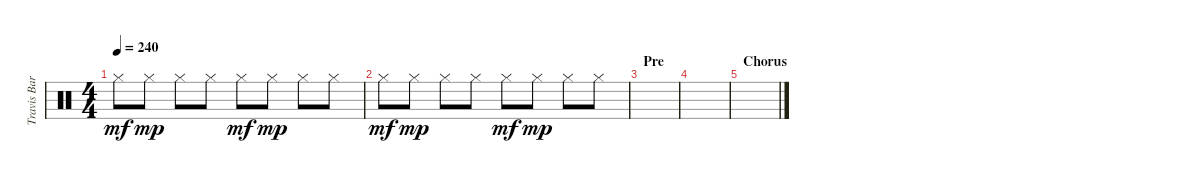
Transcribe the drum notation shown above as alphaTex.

\track ("Travis Barker - Drums 2" "Travis Bar") {instrument percussion}
\staff {score}
\articulation defaults
\ts (4 4)
\tempo 240
\clef neutral
\ks c "Hi-Hat (closed)".8{dy mf} "Hi-Hat (closed)".8{dy mp} "Hi-Hat (closed)".8 "Hi-Hat (closed)".8 "Hi-Hat (closed)".8{dy mf} "Hi-Hat (closed)".8{dy mp} "Hi-Hat (closed)".8 "Hi-Hat (closed)".8
|
"Hi-Hat (closed)".8{dy mf} "Hi-Hat (closed)".8{dy mp} "Hi-Hat (closed)".8 "Hi-Hat (closed)".8 "Hi-Hat (closed)".8{dy mf} "Hi-Hat (closed)".8{dy mp} "Hi-Hat (closed)".8 "Hi-Hat (closed)".8 |
\section ("" "Pre")
|
|
\section ("" "Chorus")
